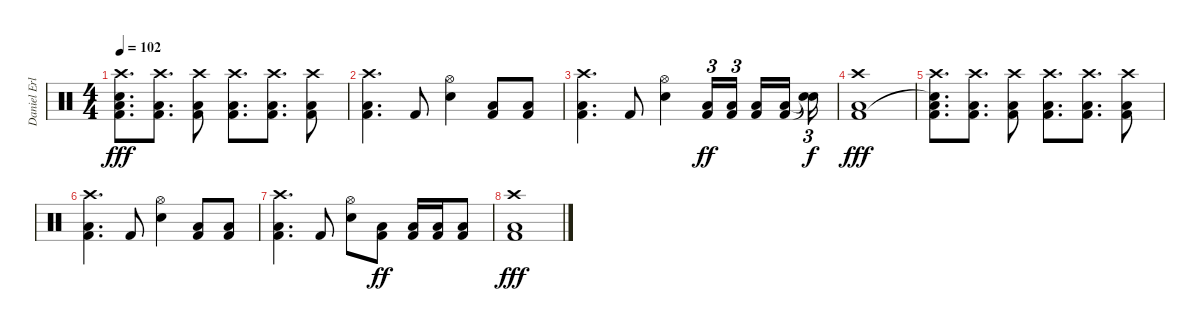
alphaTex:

\track ("Daniel Erlandsson" "Daniel Erl") {instrument percussion}
\staff {score}
\articulation defaults
\ts (4 4)
\tempo 102
\clef neutral
\ks c
("Crash high (hit)" "Snare (hit) 2"{t} "Kick (hit) 2" "Low Floor Tom (hit)").8{d dy fff} ("Crash high (hit)" "Kick (hit) 2" "Low Floor Tom (hit)").8{d} ("Crash high (hit)" "Kick (hit) 2" "Low Floor Tom (hit)").8 ("Crash high (hit)" "Kick (hit) 2" "Low Floor Tom (hit)").8{d} ("Crash high (hit)" "Kick (hit) 2" "Low Floor Tom (hit)").8{d} ("Crash high (hit)" "Kick (hit) 2" "Low Floor Tom (hit)").8 |
("Crash high (hit)" "Kick (hit) 2" "Low Floor Tom (hit)").4{d} "Kick (hit) 2".8 ("Hi-Hat (open)" "Snare (hit) 2").4 ("Kick (hit) 2" "Low Floor Tom (hit)").8 ("Kick (hit) 2" "Low Floor Tom (hit)").8 |
("Crash high (hit)" "Kick (hit) 2" "Low Floor Tom (hit)").4{d} "Kick (hit) 2".8 ("Hi-Hat (open)" "Snare (hit) 2").4 ("Kick (hit) 2" "Low Floor Tom (hit)").16{tu (3 2) dy ff} ("Kick (hit) 2" "Low Floor Tom (hit)").16{tu (3 2) beam splitsecondary} ("Kick (hit) 2" "Low Floor Tom (hit)").16 ("Kick (hit) 2" "Low Floor Tom (hit)").16{beam splitsecondary} ("Snare (hit)"{t} "Snare (hit)"{t}).16{tu (3 2) dy f} |
("Crash high (hit)" "Kick (hit) 2" "Low Floor Tom (hit)").1{dy fff} |
("Crash high (hit)" "Snare (hit) 2"{t} "Kick (hit) 2" "Low Floor Tom (hit)").8{d} ("Crash high (hit)" "Kick (hit) 2" "Low Floor Tom (hit)").8{d} ("Crash high (hit)" "Kick (hit) 2" "Low Floor Tom (hit)").8 ("Crash high (hit)" "Kick (hit) 2" "Low Floor Tom (hit)").8{d} ("Crash high (hit)" "Kick (hit) 2" "Low Floor Tom (hit)").8{d} ("Crash high (hit)" "Kick (hit) 2" "Low Floor Tom (hit)").8 |
("Crash high (hit)" "Kick (hit) 2" "Low Floor Tom (hit)").4{d} "Kick (hit) 2".8 ("Hi-Hat (open)" "Snare (hit) 2").4 ("Kick (hit) 2" "Low Floor Tom (hit)").8 ("Kick (hit) 2" "Low Floor Tom (hit)").8 |
("Crash high (hit)" "Kick (hit) 2" "Low Floor Tom (hit)").4{d} "Kick (hit) 2".8 ("Hi-Hat (open)" "Snare (hit) 2").8 ("Kick (hit) 2" "Low Floor Tom (hit)").8{dy ff} ("Kick (hit) 2" "Low Floor Tom (hit)").16 ("Kick (hit) 2" "Low Floor Tom (hit)").16 ("Kick (hit) 2" "Low Floor Tom (hit)").8 |
("Crash high (hit)" "Kick (hit) 2" "Low Floor Tom (hit)").1{dy fff}
